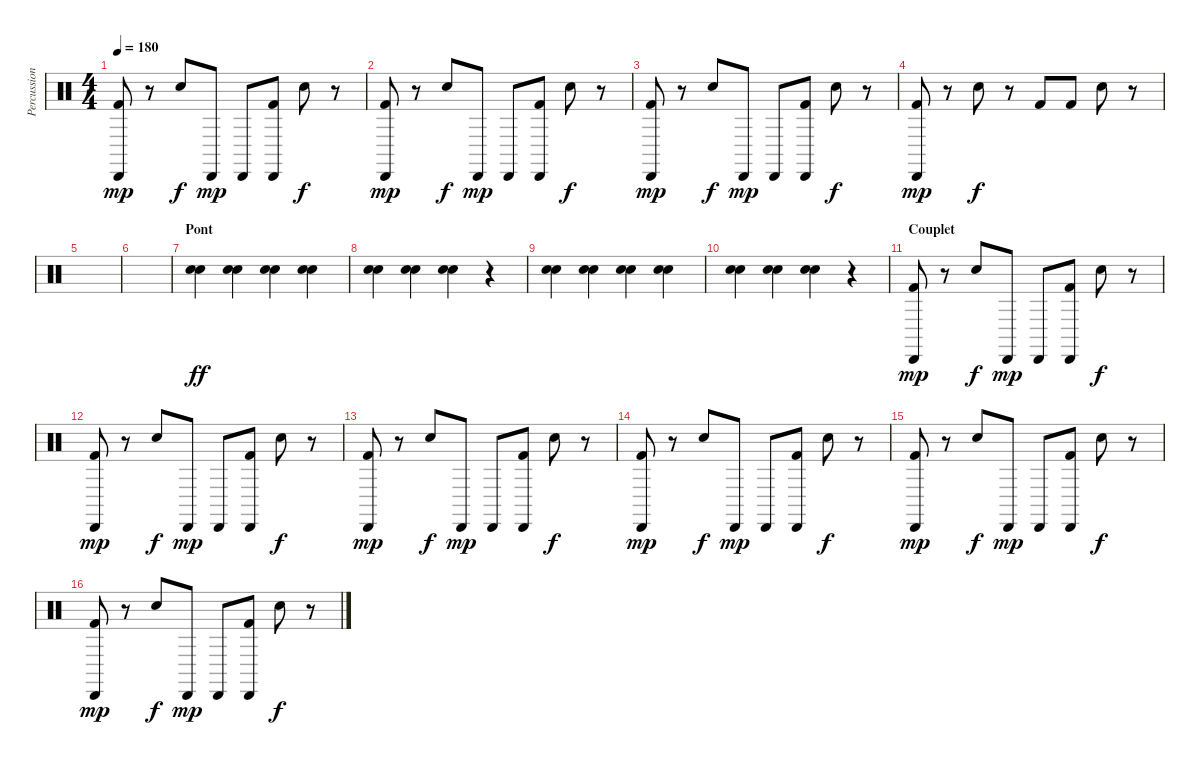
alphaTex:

\track ("Percussions" "Percussion") {instrument percussion}
\staff {score}
\articulation defaults
\ts (4 4)
\tempo 180
\clef neutral
\ks c
("Cabasa (hit)" "Kick (hit) 2").8{dy mp} r.8 "Electric Snare (hit)".8{dy f} "Cabasa (hit)".8{dy mp} "Cabasa (hit)".8 ("Cabasa (hit)" "Kick (hit) 2").8 "Electric Snare (hit)".8{dy f} r.8 |
("Cabasa (hit)" "Kick (hit) 2").8{dy mp} r.8 "Electric Snare (hit)".8{dy f} "Cabasa (hit)".8{dy mp} "Cabasa (hit)".8 ("Cabasa (hit)" "Kick (hit) 2").8 "Electric Snare (hit)".8{dy f} r.8 |
("Cabasa (hit)" "Kick (hit) 2").8{dy mp} r.8 "Electric Snare (hit)".8{dy f} "Cabasa (hit)".8{dy mp} "Cabasa (hit)".8 ("Cabasa (hit)" "Kick (hit) 2").8 "Electric Snare (hit)".8{dy f} r.8 |
("Cabasa (hit)" "Kick (hit) 2").8{dy mp} r.8 "Electric Snare (hit)".8{dy f} r.8 "Kick (hit) 2".8 "Kick (hit) 2".8 "Electric Snare (hit)".8 r.8 |
|
|
\section ("" "Pont")
("Electric Snare (hit)" "Electric Snare (hit)").4{dy ff} ("Electric Snare (hit)" "Electric Snare (hit)").4 ("Electric Snare (hit)" "Electric Snare (hit)").4 ("Electric Snare (hit)" "Electric Snare (hit)").4 |
("Electric Snare (hit)" "Electric Snare (hit)").4 ("Electric Snare (hit)" "Electric Snare (hit)").4 ("Electric Snare (hit)" "Electric Snare (hit)").4 r.4 |
("Electric Snare (hit)" "Electric Snare (hit)").4 ("Electric Snare (hit)" "Electric Snare (hit)").4 ("Electric Snare (hit)" "Electric Snare (hit)").4 ("Electric Snare (hit)" "Electric Snare (hit)").4 |
("Electric Snare (hit)" "Electric Snare (hit)").4 ("Electric Snare (hit)" "Electric Snare (hit)").4 ("Electric Snare (hit)" "Electric Snare (hit)").4 r.4 |
\section ("" "Couplet")
("Cabasa (hit)" "Kick (hit) 2").8{dy mp} r.8 "Electric Snare (hit)".8{dy f} "Cabasa (hit)".8{dy mp} "Cabasa (hit)".8 ("Cabasa (hit)" "Kick (hit) 2").8 "Electric Snare (hit)".8{dy f} r.8 |
("Cabasa (hit)" "Kick (hit) 2").8{dy mp} r.8 "Electric Snare (hit)".8{dy f} "Cabasa (hit)".8{dy mp} "Cabasa (hit)".8 ("Cabasa (hit)" "Kick (hit) 2").8 "Electric Snare (hit)".8{dy f} r.8 |
("Cabasa (hit)" "Kick (hit) 2").8{dy mp} r.8 "Electric Snare (hit)".8{dy f} "Cabasa (hit)".8{dy mp} "Cabasa (hit)".8 ("Cabasa (hit)" "Kick (hit) 2").8 "Electric Snare (hit)".8{dy f} r.8 |
("Cabasa (hit)" "Kick (hit) 2").8{dy mp} r.8 "Electric Snare (hit)".8{dy f} "Cabasa (hit)".8{dy mp} "Cabasa (hit)".8 ("Cabasa (hit)" "Kick (hit) 2").8 "Electric Snare (hit)".8{dy f} r.8 |
("Cabasa (hit)" "Kick (hit) 2").8{dy mp} r.8 "Electric Snare (hit)".8{dy f} "Cabasa (hit)".8{dy mp} "Cabasa (hit)".8 ("Cabasa (hit)" "Kick (hit) 2").8 "Electric Snare (hit)".8{dy f} r.8 |
("Cabasa (hit)" "Kick (hit) 2").8{dy mp} r.8 "Electric Snare (hit)".8{dy f} "Cabasa (hit)".8{dy mp} "Cabasa (hit)".8 ("Cabasa (hit)" "Kick (hit) 2").8 "Electric Snare (hit)".8{dy f} r.8
